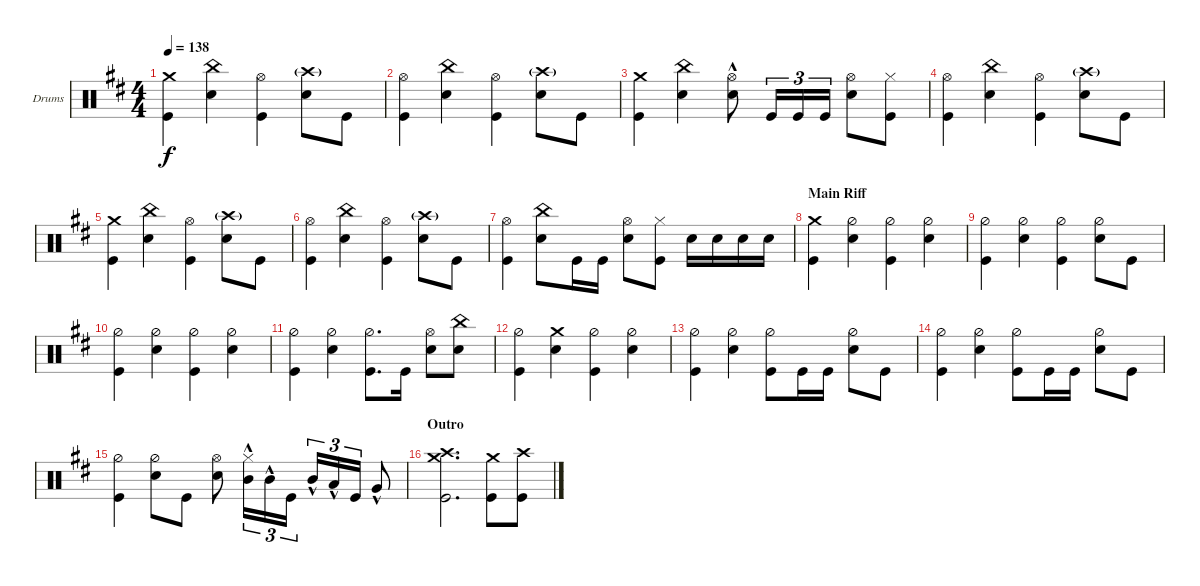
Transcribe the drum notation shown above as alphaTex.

\defaultSystemsLayout 4
\bracketExtendMode groupsimilarinstruments
\firstSystemTrackNameOrientation horizontal
\otherSystemsTrackNameOrientation horizontal
\track ("Drumkit" "Drums") {instrument percussion}
\staff {score}
\articulation defaults
\ts (4 4)
\tempo 138
\clef neutral
\ks d
("Kick (hit)" "Crash medium (hit)").4{dy f} ("Snare (hit) 2" "China (hit)").4 ("Kick (hit)" "Hi-Hat (open)").4 ("Snare (hit) 2" "Crash high (hit)"{g}).8 "Kick (hit)".8 |
("Kick (hit)" "Hi-Hat (open)").4 ("Snare (hit) 2" "China (hit)").4 ("Kick (hit)" "Hi-Hat (open)").4 ("Snare (hit) 2" "Crash high (hit)"{g}).8 "Kick (hit)".8 |
("Kick (hit)" "Crash medium (hit)").4 ("Snare (hit) 2" "China (hit)").4 ("Snare (hit) 2"{hac} "Hi-Hat (open)").8 "Kick (hit)".16{tu (3 2)} "Kick (hit)".16{tu (3 2)} "Kick (hit)".16{tu (3 2)} ("Snare (hit) 2" "Hi-Hat (open)").8 ("Kick (hit)" "Hi-Hat (closed)").8 |
("Kick (hit)" "Hi-Hat (open)").4 ("Snare (hit) 2" "China (hit)").4 ("Kick (hit)" "Hi-Hat (open)").4 ("Snare (hit) 2" "Crash high (hit)"{g}).8 "Kick (hit)".8 |
("Kick (hit)" "Crash medium (hit)").4 ("Snare (hit) 2" "China (hit)").4 ("Kick (hit)" "Hi-Hat (open)").4 ("Snare (hit) 2" "Crash high (hit)"{g}).8 "Kick (hit)".8 |
("Kick (hit)" "Hi-Hat (open)").4 ("Snare (hit) 2" "China (hit)").4 ("Kick (hit)" "Hi-Hat (open)").4 ("Snare (hit) 2" "Crash high (hit)"{g}).8 "Kick (hit)".8 |
("Kick (hit)" "Hi-Hat (open)").4 ("Snare (hit) 2" "China (hit)").8 "Kick (hit)".16 "Kick (hit)".16 ("Snare (hit) 2" "Hi-Hat (open)").8 ("Kick (hit)" "Hi-Hat (closed)").8 "Snare (hit) 2".16 "Snare (hit) 2".16 "Snare (hit) 2".16 "Snare (hit) 2".16 |
\section ("" "Main Riff")
("Kick (hit)" "Crash medium (hit)").4 ("Hi-Hat (half)" "Snare (hit) 2").4 ("Hi-Hat (half)" "Kick (hit)").4 ("Hi-Hat (half)" "Snare (hit) 2").4 |
("Hi-Hat (half)" "Kick (hit)").4 ("Hi-Hat (half)" "Snare (hit) 2").4 ("Hi-Hat (half)" "Kick (hit)").4 ("Hi-Hat (half)" "Snare (hit) 2").8 "Kick (hit)".8 |
("Hi-Hat (half)" "Kick (hit)").4 ("Hi-Hat (half)" "Snare (hit) 2").4 ("Hi-Hat (half)" "Kick (hit)").4 ("Hi-Hat (half)" "Snare (hit) 2").4 |
("Hi-Hat (half)" "Kick (hit)").4 ("Hi-Hat (half)" "Snare (hit) 2").4 ("Hi-Hat (half)" "Kick (hit)").8{d} "Kick (hit)".16 ("Snare (hit) 2" "Hi-Hat (open)").8 ("Snare (hit) 2" "China (hit)").8 |
("Kick (hit)" "Hi-Hat (half)").4 ("Snare (hit) 2" "Crash medium (hit)").4 ("Hi-Hat (half)" "Kick (hit)").4 ("Hi-Hat (half)" "Snare (hit) 2").4 |
("Hi-Hat (half)" "Kick (hit)").4 ("Hi-Hat (half)" "Snare (hit) 2").4 ("Hi-Hat (half)" "Kick (hit)").8 "Kick (hit)".16 "Kick (hit)".16 ("Hi-Hat (half)" "Snare (hit) 2").8 "Kick (hit)".8 |
("Hi-Hat (half)" "Kick (hit)").4 ("Hi-Hat (half)" "Snare (hit) 2").4 ("Hi-Hat (half)" "Kick (hit)").8 "Kick (hit)".16 "Kick (hit)".16 ("Hi-Hat (half)" "Snare (hit) 2").8 "Kick (hit)".8 |
("Hi-Hat (half)" "Kick (hit)").4 ("Hi-Hat (half)" "Snare (hit) 2").8 "Kick (hit)".8 ("Snare (hit) 2" "Hi-Hat (open)").8 ("Hi-Hat (closed)" "Mid Tom (hit)"{hac}).16{tu (3 2)} "Mid Tom (hit)"{hac}.16{tu (3 2)} "Kick (hit)".16{tu (3 2)} "Mid Tom (hit)"{hac}.16{tu (3 2)} "Low Tom (hit)"{hac}.16{tu (3 2)} "Kick (hit)".16{tu (3 2)} "Very Low Tom (hit)"{hac}.8 |
\section ("" "Outro")
("Kick (hit)" "Crash medium (hit)" "Crash high (hit)").2{d} ("Crash medium (hit)" "Kick (hit)").8 ("Crash high (hit)" "Kick (hit)").8
